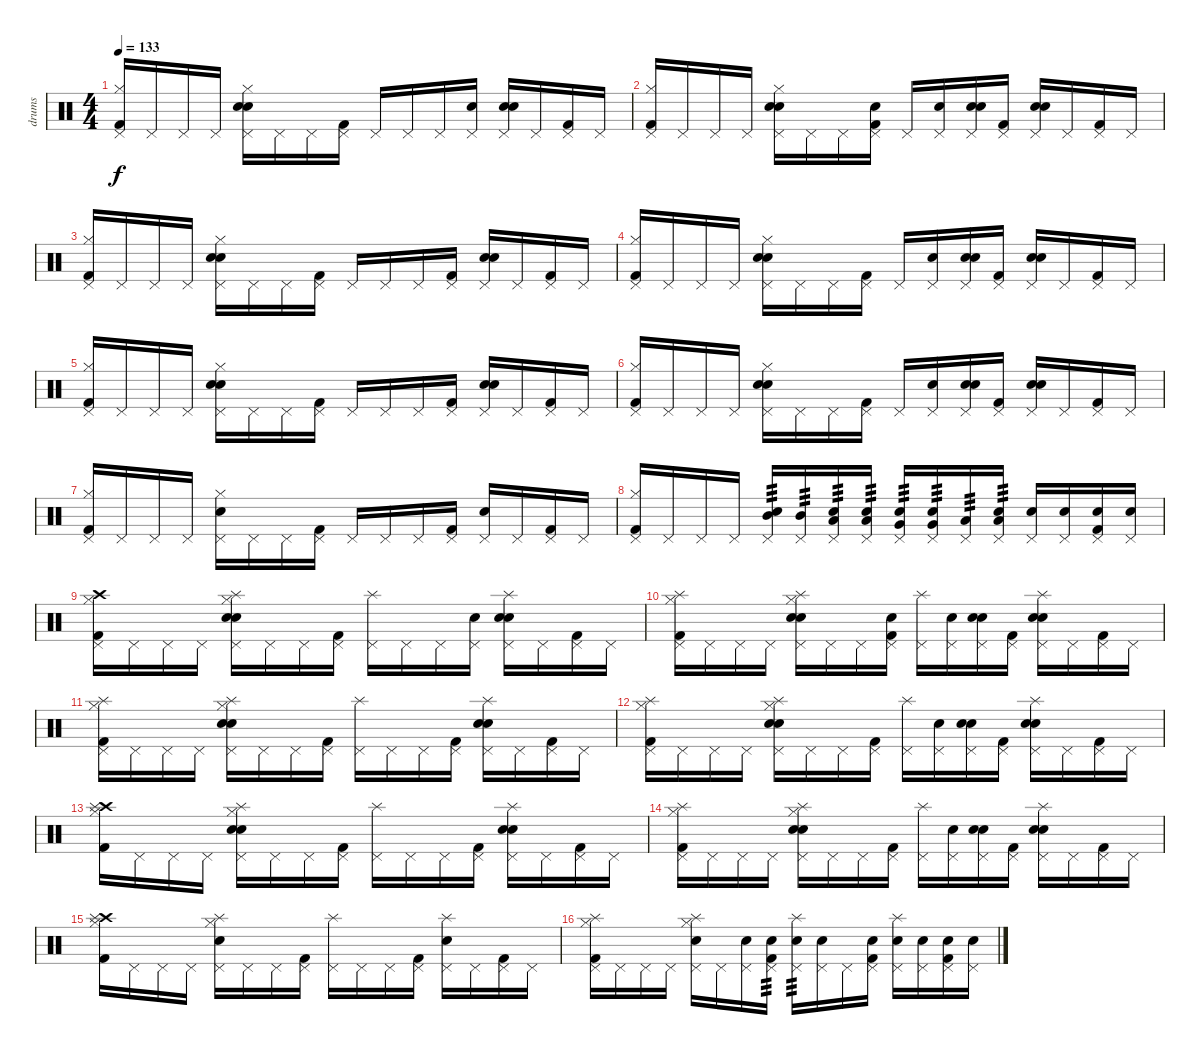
\track ("drums" "drums") {instrument percussion}
\staff {score}
\articulation defaults
\ts (4 4)
\tempo 133
\clef neutral
\ks c
("Kick (hit) 2" "Hi-Hat (closed)" "Pedal Hi-Hat (hit)").16{dy f} "Pedal Hi-Hat (hit)".16 "Pedal Hi-Hat (hit)".16 "Pedal Hi-Hat (hit)".16 ("Snare (hit) 2" "Hi-Hat (closed)" "Pedal Hi-Hat (hit)" "Hand Clap (hit)").16 "Pedal Hi-Hat (hit)".16 "Pedal Hi-Hat (hit)".16 ("Kick (hit) 2" "Pedal Hi-Hat (hit)").16 "Pedal Hi-Hat (hit)".16 "Pedal Hi-Hat (hit)".16 "Pedal Hi-Hat (hit)".16 ("Pedal Hi-Hat (hit)" "Hand Clap (hit)").16 ("Snare (hit) 2" "Pedal Hi-Hat (hit)" "Hand Clap (hit)").16 "Pedal Hi-Hat (hit)".16 ("Kick (hit) 2" "Pedal Hi-Hat (hit)").16 "Pedal Hi-Hat (hit)".16 |
("Kick (hit) 2" "Hi-Hat (closed)" "Pedal Hi-Hat (hit)").16 "Pedal Hi-Hat (hit)".16 "Pedal Hi-Hat (hit)".16 "Pedal Hi-Hat (hit)".16 ("Snare (hit) 2" "Hi-Hat (closed)" "Pedal Hi-Hat (hit)" "Hand Clap (hit)").16 "Pedal Hi-Hat (hit)".16 "Pedal Hi-Hat (hit)".16 ("Kick (hit) 2" "Pedal Hi-Hat (hit)" "Hand Clap (hit)").16 "Pedal Hi-Hat (hit)".16 ("Snare (hit) 2" "Pedal Hi-Hat (hit)").16 ("Snare (hit) 2" "Pedal Hi-Hat (hit)" "Hand Clap (hit)").16 ("Kick (hit) 2" "Pedal Hi-Hat (hit)").16 ("Snare (hit) 2" "Pedal Hi-Hat (hit)" "Hand Clap (hit)").16 "Pedal Hi-Hat (hit)".16 ("Kick (hit) 2" "Pedal Hi-Hat (hit)").16 "Pedal Hi-Hat (hit)".16 |
("Kick (hit) 2" "Hi-Hat (closed)" "Pedal Hi-Hat (hit)").16 "Pedal Hi-Hat (hit)".16 "Pedal Hi-Hat (hit)".16 "Pedal Hi-Hat (hit)".16 ("Snare (hit) 2" "Hi-Hat (closed)" "Pedal Hi-Hat (hit)" "Hand Clap (hit)").16 "Pedal Hi-Hat (hit)".16 "Pedal Hi-Hat (hit)".16 ("Kick (hit) 2" "Pedal Hi-Hat (hit)").16 "Pedal Hi-Hat (hit)".16 "Pedal Hi-Hat (hit)".16 "Pedal Hi-Hat (hit)".16 ("Kick (hit) 2" "Pedal Hi-Hat (hit)").16 ("Snare (hit) 2" "Pedal Hi-Hat (hit)" "Hand Clap (hit)").16 "Pedal Hi-Hat (hit)".16 ("Kick (hit) 2" "Pedal Hi-Hat (hit)").16 "Pedal Hi-Hat (hit)".16 |
("Kick (hit) 2" "Hi-Hat (closed)" "Pedal Hi-Hat (hit)").16 "Pedal Hi-Hat (hit)".16 "Pedal Hi-Hat (hit)".16 "Pedal Hi-Hat (hit)".16 ("Snare (hit) 2" "Hi-Hat (closed)" "Pedal Hi-Hat (hit)" "Hand Clap (hit)").16 "Pedal Hi-Hat (hit)".16 "Pedal Hi-Hat (hit)".16 ("Kick (hit) 2" "Pedal Hi-Hat (hit)").16 "Pedal Hi-Hat (hit)".16 ("Snare (hit) 2" "Pedal Hi-Hat (hit)").16 ("Snare (hit) 2" "Pedal Hi-Hat (hit)" "Hand Clap (hit)").16 ("Kick (hit) 2" "Pedal Hi-Hat (hit)").16 ("Snare (hit) 2" "Pedal Hi-Hat (hit)" "Hand Clap (hit)").16 "Pedal Hi-Hat (hit)".16 ("Kick (hit) 2" "Pedal Hi-Hat (hit)").16 "Pedal Hi-Hat (hit)".16 |
("Kick (hit) 2" "Hi-Hat (closed)" "Pedal Hi-Hat (hit)").16 "Pedal Hi-Hat (hit)".16 "Pedal Hi-Hat (hit)".16 "Pedal Hi-Hat (hit)".16 ("Snare (hit) 2" "Hi-Hat (closed)" "Pedal Hi-Hat (hit)" "Hand Clap (hit)").16 "Pedal Hi-Hat (hit)".16 "Pedal Hi-Hat (hit)".16 ("Kick (hit) 2" "Pedal Hi-Hat (hit)").16 "Pedal Hi-Hat (hit)".16 "Pedal Hi-Hat (hit)".16 "Pedal Hi-Hat (hit)".16 ("Kick (hit) 2" "Pedal Hi-Hat (hit)").16 ("Snare (hit) 2" "Pedal Hi-Hat (hit)" "Hand Clap (hit)").16 "Pedal Hi-Hat (hit)".16 ("Kick (hit) 2" "Pedal Hi-Hat (hit)").16 "Pedal Hi-Hat (hit)".16 |
("Kick (hit) 2" "Hi-Hat (closed)" "Pedal Hi-Hat (hit)").16 "Pedal Hi-Hat (hit)".16 "Pedal Hi-Hat (hit)".16 "Pedal Hi-Hat (hit)".16 ("Snare (hit) 2" "Hi-Hat (closed)" "Pedal Hi-Hat (hit)" "Hand Clap (hit)").16 "Pedal Hi-Hat (hit)".16 "Pedal Hi-Hat (hit)".16 ("Kick (hit) 2" "Pedal Hi-Hat (hit)").16 "Pedal Hi-Hat (hit)".16 ("Snare (hit) 2" "Pedal Hi-Hat (hit)").16 ("Snare (hit) 2" "Pedal Hi-Hat (hit)" "Hand Clap (hit)").16 ("Kick (hit) 2" "Pedal Hi-Hat (hit)").16 ("Snare (hit) 2" "Pedal Hi-Hat (hit)" "Hand Clap (hit)").16 "Pedal Hi-Hat (hit)".16 ("Kick (hit) 2" "Pedal Hi-Hat (hit)").16 "Pedal Hi-Hat (hit)".16 |
("Kick (hit) 2" "Hi-Hat (closed)" "Pedal Hi-Hat (hit)").16 "Pedal Hi-Hat (hit)".16 "Pedal Hi-Hat (hit)".16 "Pedal Hi-Hat (hit)".16 ("Snare (hit) 2" "Hi-Hat (closed)" "Pedal Hi-Hat (hit)").16 "Pedal Hi-Hat (hit)".16 "Pedal Hi-Hat (hit)".16 ("Kick (hit) 2" "Pedal Hi-Hat (hit)").16 "Pedal Hi-Hat (hit)".16 "Pedal Hi-Hat (hit)".16 "Pedal Hi-Hat (hit)".16 ("Kick (hit) 2" "Pedal Hi-Hat (hit)").16 ("Snare (hit) 2" "Pedal Hi-Hat (hit)").16 "Pedal Hi-Hat (hit)".16 ("Kick (hit) 2" "Pedal Hi-Hat (hit)").16 "Pedal Hi-Hat (hit)".16 |
("Kick (hit) 2" "Hi-Hat (closed)" "Pedal Hi-Hat (hit)").16 "Pedal Hi-Hat (hit)".16 "Pedal Hi-Hat (hit)".16 "Pedal Hi-Hat (hit)".16 ("Snare (hit) 2" "Mid Tom (hit)" "Pedal Hi-Hat (hit)").16{tp 3} ("Mid Tom (hit)" "Pedal Hi-Hat (hit)").16{tp 3} ("Snare (hit) 2" "Low Tom (hit)" "Pedal Hi-Hat (hit)").16{tp 3} ("Snare (hit) 2" "Low Tom (hit)" "Pedal Hi-Hat (hit)").16{tp 3} ("Snare (hit) 2" "Very Low Tom (hit)" "Pedal Hi-Hat (hit)").16{tp 3} ("Snare (hit) 2" "Very Low Tom (hit)" "Pedal Hi-Hat (hit)").16{tp 3} ("Low Floor Tom (hit)" "Pedal Hi-Hat (hit)").16{tp 3} ("Snare (hit) 2" "Low Floor Tom (hit)" "Pedal Hi-Hat (hit)").16{tp 3} ("Snare (hit) 2" "Pedal Hi-Hat (hit)").16 ("Snare (hit) 2" "Pedal Hi-Hat (hit)").16 ("Snare (hit) 2" "Kick (hit) 2" "Pedal Hi-Hat (hit)").16 ("Snare (hit) 2" "Pedal Hi-Hat (hit)").16 |
("Kick (hit) 2" "Hi-Hat (closed)" "Pedal Hi-Hat (hit)" "Crash high (hit)").16 "Pedal Hi-Hat (hit)".16 "Pedal Hi-Hat (hit)".16 "Pedal Hi-Hat (hit)".16 ("Snare (hit) 2" "Hi-Hat (closed)" "Pedal Hi-Hat (hit)" "Hand Clap (hit)" "Splash (hit)").16 "Pedal Hi-Hat (hit)".16 "Pedal Hi-Hat (hit)".16 ("Kick (hit) 2" "Pedal Hi-Hat (hit)").16 ("Pedal Hi-Hat (hit)" "Splash (hit)").16 "Pedal Hi-Hat (hit)".16 "Pedal Hi-Hat (hit)".16 ("Pedal Hi-Hat (hit)" "Hand Clap (hit)").16 ("Snare (hit) 2" "Pedal Hi-Hat (hit)" "Hand Clap (hit)" "Splash (hit)").16 "Pedal Hi-Hat (hit)".16 ("Kick (hit) 2" "Pedal Hi-Hat (hit)").16 "Pedal Hi-Hat (hit)".16 |
("Kick (hit) 2" "Hi-Hat (closed)" "Pedal Hi-Hat (hit)" "Splash (hit)").16 "Pedal Hi-Hat (hit)".16 "Pedal Hi-Hat (hit)".16 "Pedal Hi-Hat (hit)".16 ("Snare (hit) 2" "Hi-Hat (closed)" "Pedal Hi-Hat (hit)" "Hand Clap (hit)" "Splash (hit)").16 "Pedal Hi-Hat (hit)".16 "Pedal Hi-Hat (hit)".16 ("Kick (hit) 2" "Pedal Hi-Hat (hit)" "Hand Clap (hit)").16 ("Pedal Hi-Hat (hit)" "Splash (hit)").16 ("Snare (hit) 2" "Pedal Hi-Hat (hit)").16 ("Snare (hit) 2" "Pedal Hi-Hat (hit)" "Hand Clap (hit)").16 ("Kick (hit) 2" "Pedal Hi-Hat (hit)").16 ("Snare (hit) 2" "Pedal Hi-Hat (hit)" "Hand Clap (hit)" "Splash (hit)").16 "Pedal Hi-Hat (hit)".16 ("Kick (hit) 2" "Pedal Hi-Hat (hit)").16 "Pedal Hi-Hat (hit)".16 |
("Kick (hit) 2" "Hi-Hat (closed)" "Pedal Hi-Hat (hit)" "Splash (hit)").16 "Pedal Hi-Hat (hit)".16 "Pedal Hi-Hat (hit)".16 "Pedal Hi-Hat (hit)".16 ("Snare (hit) 2" "Hi-Hat (closed)" "Pedal Hi-Hat (hit)" "Hand Clap (hit)" "Splash (hit)").16 "Pedal Hi-Hat (hit)".16 "Pedal Hi-Hat (hit)".16 ("Kick (hit) 2" "Pedal Hi-Hat (hit)").16 ("Pedal Hi-Hat (hit)" "Splash (hit)").16 "Pedal Hi-Hat (hit)".16 "Pedal Hi-Hat (hit)".16 ("Kick (hit) 2" "Pedal Hi-Hat (hit)").16 ("Snare (hit) 2" "Pedal Hi-Hat (hit)" "Hand Clap (hit)" "Splash (hit)").16 "Pedal Hi-Hat (hit)".16 ("Kick (hit) 2" "Pedal Hi-Hat (hit)").16 "Pedal Hi-Hat (hit)".16 |
("Kick (hit) 2" "Hi-Hat (closed)" "Pedal Hi-Hat (hit)" "Splash (hit)").16 "Pedal Hi-Hat (hit)".16 "Pedal Hi-Hat (hit)".16 "Pedal Hi-Hat (hit)".16 ("Snare (hit) 2" "Hi-Hat (closed)" "Pedal Hi-Hat (hit)" "Hand Clap (hit)" "Splash (hit)").16 "Pedal Hi-Hat (hit)".16 "Pedal Hi-Hat (hit)".16 ("Kick (hit) 2" "Pedal Hi-Hat (hit)").16 ("Pedal Hi-Hat (hit)" "Splash (hit)").16 ("Snare (hit) 2" "Pedal Hi-Hat (hit)").16 ("Snare (hit) 2" "Pedal Hi-Hat (hit)" "Hand Clap (hit)").16 ("Kick (hit) 2" "Pedal Hi-Hat (hit)").16 ("Snare (hit) 2" "Pedal Hi-Hat (hit)" "Hand Clap (hit)" "Splash (hit)").16 "Pedal Hi-Hat (hit)".16 ("Kick (hit) 2" "Pedal Hi-Hat (hit)").16 "Pedal Hi-Hat (hit)".16 |
("Kick (hit) 2" "Hi-Hat (closed)" "Crash high (hit)" "Splash (hit)").16 "Pedal Hi-Hat (hit)".16 "Pedal Hi-Hat (hit)".16 "Pedal Hi-Hat (hit)".16 ("Snare (hit) 2" "Hi-Hat (closed)" "Pedal Hi-Hat (hit)" "Hand Clap (hit)" "Splash (hit)").16 "Pedal Hi-Hat (hit)".16 "Pedal Hi-Hat (hit)".16 ("Kick (hit) 2" "Pedal Hi-Hat (hit)").16 ("Pedal Hi-Hat (hit)" "Splash (hit)").16 "Pedal Hi-Hat (hit)".16 "Pedal Hi-Hat (hit)".16 ("Kick (hit) 2" "Pedal Hi-Hat (hit)").16 ("Snare (hit) 2" "Pedal Hi-Hat (hit)" "Hand Clap (hit)" "Splash (hit)").16 "Pedal Hi-Hat (hit)".16 ("Kick (hit) 2" "Pedal Hi-Hat (hit)").16 "Pedal Hi-Hat (hit)".16 |
("Kick (hit) 2" "Hi-Hat (closed)" "Pedal Hi-Hat (hit)" "Splash (hit)").16 "Pedal Hi-Hat (hit)".16 "Pedal Hi-Hat (hit)".16 "Pedal Hi-Hat (hit)".16 ("Snare (hit) 2" "Hi-Hat (closed)" "Pedal Hi-Hat (hit)" "Hand Clap (hit)" "Splash (hit)").16 "Pedal Hi-Hat (hit)".16 "Pedal Hi-Hat (hit)".16 ("Kick (hit) 2" "Pedal Hi-Hat (hit)").16 ("Pedal Hi-Hat (hit)" "Splash (hit)").16 ("Snare (hit) 2" "Pedal Hi-Hat (hit)").16 ("Snare (hit) 2" "Pedal Hi-Hat (hit)" "Hand Clap (hit)").16 ("Kick (hit) 2" "Pedal Hi-Hat (hit)").16 ("Snare (hit) 2" "Pedal Hi-Hat (hit)" "Hand Clap (hit)" "Splash (hit)").16 "Pedal Hi-Hat (hit)".16 ("Kick (hit) 2" "Pedal Hi-Hat (hit)").16 "Pedal Hi-Hat (hit)".16 |
("Kick (hit) 2" "Hi-Hat (closed)" "Crash high (hit)" "Splash (hit)").16 "Pedal Hi-Hat (hit)".16 "Pedal Hi-Hat (hit)".16 "Pedal Hi-Hat (hit)".16 ("Snare (hit) 2" "Hi-Hat (closed)" "Pedal Hi-Hat (hit)" "Splash (hit)").16 "Pedal Hi-Hat (hit)".16 "Pedal Hi-Hat (hit)".16 ("Kick (hit) 2" "Pedal Hi-Hat (hit)").16 ("Pedal Hi-Hat (hit)" "Splash (hit)").16 "Pedal Hi-Hat (hit)".16 "Pedal Hi-Hat (hit)".16 ("Kick (hit) 2" "Pedal Hi-Hat (hit)").16 ("Snare (hit) 2" "Pedal Hi-Hat (hit)" "Splash (hit)").16 "Pedal Hi-Hat (hit)".16 ("Kick (hit) 2" "Pedal Hi-Hat (hit)").16 "Pedal Hi-Hat (hit)".16 |
("Kick (hit) 2" "Hi-Hat (closed)" "Pedal Hi-Hat (hit)" "Splash (hit)").16 "Pedal Hi-Hat (hit)".16 "Pedal Hi-Hat (hit)".16 "Pedal Hi-Hat (hit)".16 ("Snare (hit) 2" "Hi-Hat (closed)" "Pedal Hi-Hat (hit)" "Splash (hit)").16 "Pedal Hi-Hat (hit)".16 ("Snare (hit) 2" "Pedal Hi-Hat (hit)").16 ("Snare (hit) 2" "Kick (hit) 2" "Pedal Hi-Hat (hit)").16{tp 3} ("Snare (hit) 2" "Pedal Hi-Hat (hit)" "Splash (hit)").16{tp 3} ("Snare (hit) 2" "Pedal Hi-Hat (hit)").16 "Pedal Hi-Hat (hit)".16 ("Snare (hit) 2" "Kick (hit) 2" "Pedal Hi-Hat (hit)").16 ("Snare (hit) 2" "Pedal Hi-Hat (hit)" "Splash (hit)").16 ("Snare (hit) 2" "Pedal Hi-Hat (hit)").16 ("Snare (hit) 2" "Kick (hit) 2" "Pedal Hi-Hat (hit)").16 ("Snare (hit) 2" "Pedal Hi-Hat (hit)").16
